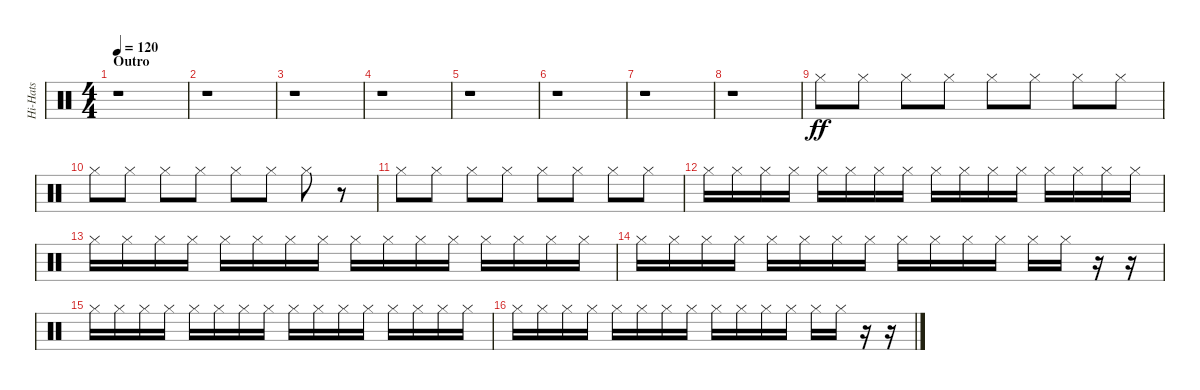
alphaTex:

\track ("Hi-Hats" "Hi-Hats") {instrument percussion}
\staff {score}
\articulation defaults
\ts (4 4)
\section ("" "Outro")
\tempo 120
\clef neutral
\ks c
r.1{dy f} |
r.1 |
r.1 |
r.1 |
r.1 |
r.1 |
r.1 |
r.1 |
"Hi-Hat (closed)".8{dy ff} "Hi-Hat (closed)".8 "Hi-Hat (closed)".8 "Hi-Hat (closed)".8 "Hi-Hat (closed)".8 "Hi-Hat (closed)".8 "Hi-Hat (closed)".8 "Hi-Hat (closed)".8 |
"Hi-Hat (closed)".8 "Hi-Hat (closed)".8 "Hi-Hat (closed)".8 "Hi-Hat (closed)".8 "Hi-Hat (closed)".8 "Hi-Hat (closed)".8 "Hi-Hat (closed)".8 r.8 |
"Hi-Hat (closed)".8 "Hi-Hat (closed)".8 "Hi-Hat (closed)".8 "Hi-Hat (closed)".8 "Hi-Hat (closed)".8 "Hi-Hat (closed)".8 "Hi-Hat (closed)".8 "Hi-Hat (closed)".8 |
"Hi-Hat (closed)".16 "Hi-Hat (closed)".16 "Hi-Hat (closed)".16 "Hi-Hat (closed)".16 "Hi-Hat (closed)".16 "Hi-Hat (closed)".16 "Hi-Hat (closed)".16 "Hi-Hat (closed)".16 "Hi-Hat (closed)".16 "Hi-Hat (closed)".16 "Hi-Hat (closed)".16 "Hi-Hat (closed)".16 "Hi-Hat (closed)".16 "Hi-Hat (closed)".16 "Hi-Hat (closed)".16 "Hi-Hat (closed)".16 |
"Hi-Hat (closed)".16 "Hi-Hat (closed)".16 "Hi-Hat (closed)".16 "Hi-Hat (closed)".16 "Hi-Hat (closed)".16 "Hi-Hat (closed)".16 "Hi-Hat (closed)".16 "Hi-Hat (closed)".16 "Hi-Hat (closed)".16 "Hi-Hat (closed)".16 "Hi-Hat (closed)".16 "Hi-Hat (closed)".16 "Hi-Hat (closed)".16 "Hi-Hat (closed)".16 "Hi-Hat (closed)".16 "Hi-Hat (closed)".16 |
"Hi-Hat (closed)".16 "Hi-Hat (closed)".16 "Hi-Hat (closed)".16 "Hi-Hat (closed)".16 "Hi-Hat (closed)".16 "Hi-Hat (closed)".16 "Hi-Hat (closed)".16 "Hi-Hat (closed)".16 "Hi-Hat (closed)".16 "Hi-Hat (closed)".16 "Hi-Hat (closed)".16 "Hi-Hat (closed)".16 "Hi-Hat (closed)".16 "Hi-Hat (closed)".16 r.16 r.16 |
"Hi-Hat (closed)".16 "Hi-Hat (closed)".16 "Hi-Hat (closed)".16 "Hi-Hat (closed)".16 "Hi-Hat (closed)".16 "Hi-Hat (closed)".16 "Hi-Hat (closed)".16 "Hi-Hat (closed)".16 "Hi-Hat (closed)".16 "Hi-Hat (closed)".16 "Hi-Hat (closed)".16 "Hi-Hat (closed)".16 "Hi-Hat (closed)".16 "Hi-Hat (closed)".16 "Hi-Hat (closed)".16 "Hi-Hat (closed)".16 |
"Hi-Hat (closed)".16 "Hi-Hat (closed)".16 "Hi-Hat (closed)".16 "Hi-Hat (closed)".16 "Hi-Hat (closed)".16 "Hi-Hat (closed)".16 "Hi-Hat (closed)".16 "Hi-Hat (closed)".16 "Hi-Hat (closed)".16 "Hi-Hat (closed)".16 "Hi-Hat (closed)".16 "Hi-Hat (closed)".16 "Hi-Hat (closed)".16 "Hi-Hat (closed)".16 r.16 r.16
